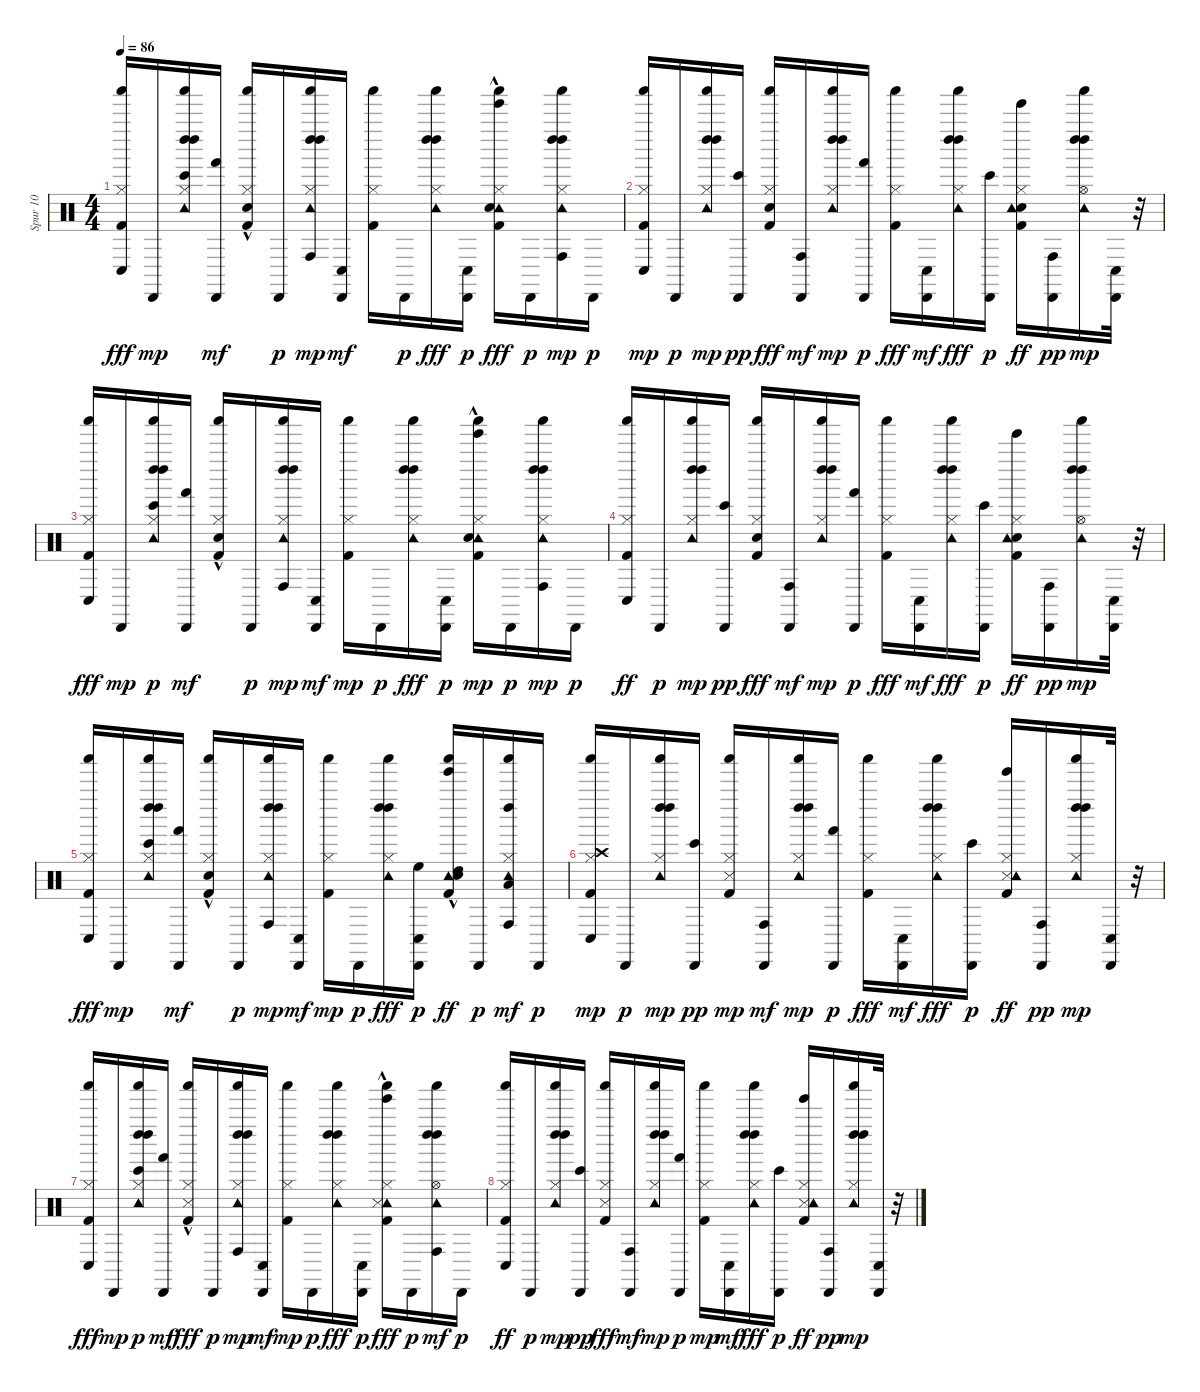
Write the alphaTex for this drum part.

\track ("Spur 10" "Spur 10") {instrument percussion}
\staff {score}
\articulation defaults
\ts (4 4)
\tempo 86
\clef neutral
\ks c
("Hi-Hat (closed)" "Kick (hit) 2" "Shaker (hit)" "Conga low (hit)").16{dy fff} "Cabasa (hit)".16{dy mp} ("Shaker (hit)" "Bongo High (hit)" "Hi-Hat (closed)" "Tambourine (hit)" "Left Maraca (hit)" "Left Maraca (hit)").16 ("Cabasa (hit)" "Hand (hit)").16{dy mf} ("Snare (hit) 2"{hac} "Shaker (hit)" "Kick (hit) 2" "Hi-Hat (closed)").16 "Cabasa (hit)".16{dy p} ("Conga high (hit)" "Shaker (hit)" "Hi-Hat (closed)" "Tambourine (hit)" "Left Maraca (hit)" "Left Maraca (hit)").16{dy mp} ("Cabasa (hit)" "Conga low (hit)").16{dy mf} ("Shaker (hit)" "Kick (hit) 2" "Hi-Hat (closed)").16 "Cabasa (hit)".16{dy p} ("Shaker (hit)" "Hi-Hat (closed)" "Tambourine (hit)" "Left Maraca (hit)" "Left Maraca (hit)").16{dy fff} ("Cabasa (hit)" "Conga low (hit)").16{dy p} ("Hi-Hat (closed)" "Tinkle Bell (hit)"{hac} "Tambourine (hit)"{hac} "Shaker (hit)" "Kick (hit) 2" "Snare (hit) 2"{hac}).16{dy fff} "Cabasa (hit)".16{dy p} ("Shaker (hit)" "Conga high (hit)" "Hi-Hat (closed)" "Tambourine (hit)" "Left Maraca (hit)" "Left Maraca (hit)").16{dy mp} "Cabasa (hit)".16{dy p} |
("Shaker (hit)" "Kick (hit) 2" "Conga low (hit)" "Hi-Hat (closed)").16{dy mp} "Cabasa (hit)".16{dy p} ("Hi-Hat (closed)" "Shaker (hit)" "Left Maraca (hit)" "Tambourine (hit)" "Left Maraca (hit)").16{dy mp} ("Bongo High (hit)" "Cabasa (hit)").16{dy pp} ("Hi-Hat (closed)" "Shaker (hit)" "Kick (hit) 2" "Snare (hit) 2").16{dy fff} ("Cabasa (hit)" "Conga high (hit)").16{dy mf} ("Shaker (hit)" "Hi-Hat (closed)" "Left Maraca (hit)" "Tambourine (hit)" "Left Maraca (hit)").16{dy mp} ("Hand (hit)" "Cabasa (hit)").16{dy p} ("Hi-Hat (closed)" "Shaker (hit)" "Kick (hit) 2").16{dy fff} ("Cabasa (hit)" "Conga low (hit)").16{dy mf} ("Shaker (hit)" "Hi-Hat (closed)" "Left Maraca (hit)" "Tambourine (hit)" "Left Maraca (hit)").16{dy fff} ("Bongo High (hit)" "Cabasa (hit)").16{dy p} ("Kick (hit) 2" "Snare (hit) 2" "Tambourine (hit)" "Tinkle Bell (hit)" "Hi-Hat (closed)").16{dy ff} ("Conga high (hit)" "Cabasa (hit)").16{dy pp} ("Hi-Hat (open)" "Shaker (hit)" "Left Maraca (hit)" "Tambourine (hit)" "Left Maraca (hit)").16{dy mp} ("Conga low (hit)" "Cabasa (hit)").32 r.32 |
("Hi-Hat (closed)" "Kick (hit) 2" "Shaker (hit)" "Conga low (hit)").16{dy fff} "Cabasa (hit)".16{dy mp} ("Hi-Hat (closed)" "Shaker (hit)" "Bongo High (hit)" "Left Maraca (hit)" "Tambourine (hit)" "Left Maraca (hit)").16{dy p} ("Cabasa (hit)" "Hand (hit)").16{dy mf} ("Snare (hit) 2"{hac} "Shaker (hit)" "Kick (hit) 2" "Hi-Hat (closed)").16 "Cabasa (hit)".16{dy p} ("Conga high (hit)" "Shaker (hit)" "Hi-Hat (closed)" "Left Maraca (hit)" "Tambourine (hit)" "Left Maraca (hit)").16{dy mp} ("Cabasa (hit)" "Conga low (hit)").16{dy mf} ("Shaker (hit)" "Kick (hit) 2" "Hi-Hat (closed)").16{dy mp} "Cabasa (hit)".16{dy p} ("Shaker (hit)" "Hi-Hat (closed)" "Left Maraca (hit)" "Tambourine (hit)" "Left Maraca (hit)").16{dy fff} ("Cabasa (hit)" "Conga low (hit)").16{dy p} ("Tinkle Bell (hit)"{hac} "Tambourine (hit)"{hac} "Shaker (hit)" "Kick (hit) 2" "Snare (hit) 2"{hac} "Hi-Hat (closed)").16{dy mp} "Cabasa (hit)".16{dy p} ("Shaker (hit)" "Conga high (hit)" "Hi-Hat (closed)" "Left Maraca (hit)" "Tambourine (hit)" "Left Maraca (hit)").16{dy mp} "Cabasa (hit)".16{dy p} |
("Hi-Hat (closed)" "Shaker (hit)" "Kick (hit) 2" "Conga low (hit)").16{dy ff} "Cabasa (hit)".16{dy p} ("Hi-Hat (closed)" "Shaker (hit)" "Left Maraca (hit)" "Tambourine (hit)" "Left Maraca (hit)").16{dy mp} ("Bongo High (hit)" "Cabasa (hit)").16{dy pp} ("Hi-Hat (closed)" "Shaker (hit)" "Kick (hit) 2" "Snare (hit) 2").16{dy fff} ("Cabasa (hit)" "Conga high (hit)").16{dy mf} ("Shaker (hit)" "Hi-Hat (closed)" "Left Maraca (hit)" "Tambourine (hit)" "Left Maraca (hit)").16{dy mp} ("Hand (hit)" "Cabasa (hit)").16{dy p} ("Hi-Hat (closed)" "Shaker (hit)" "Kick (hit) 2").16{dy fff} ("Cabasa (hit)" "Conga low (hit)").16{dy mf} ("Shaker (hit)" "Hi-Hat (closed)" "Left Maraca (hit)" "Tambourine (hit)" "Left Maraca (hit)").16{dy fff} ("Bongo High (hit)" "Cabasa (hit)").16{dy p} ("Kick (hit) 2" "Snare (hit) 2" "Tambourine (hit)" "Tinkle Bell (hit)" "Hi-Hat (closed)").16{dy ff} ("Conga high (hit)" "Cabasa (hit)").16{dy pp} ("Hi-Hat (open)" "Shaker (hit)" "Left Maraca (hit)" "Tambourine (hit)" "Left Maraca (hit)").16{dy mp} ("Conga low (hit)" "Cabasa (hit)").32 r.32 |
("Hi-Hat (closed)" "Kick (hit) 2" "Shaker (hit)" "Conga low (hit)").16{dy fff} "Cabasa (hit)".16{dy mp} ("Shaker (hit)" "Bongo High (hit)" "Hi-Hat (closed)" "Tambourine (hit)" "Left Maraca (hit)" "Left Maraca (hit)").16 ("Cabasa (hit)" "Hand (hit)").16{dy mf} ("Snare (hit) 2"{hac} "Shaker (hit)" "Kick (hit) 2" "Hi-Hat (closed)").16 "Cabasa (hit)".16{dy p} ("Conga high (hit)" "Shaker (hit)" "Hi-Hat (closed)" "Tambourine (hit)" "Left Maraca (hit)" "Left Maraca (hit)").16{dy mp} ("Cabasa (hit)" "Conga low (hit)").16{dy mf} ("Shaker (hit)" "Kick (hit) 2" "Hi-Hat (closed)").16{dy mp} "Cabasa (hit)".16{dy p} ("Shaker (hit)" "Hi-Hat (closed)" "Tambourine (hit)" "Left Maraca (hit)" "Left Maraca (hit)").16{dy fff} ("High Floor Tom (hit)" "Cabasa (hit)" "Conga low (hit)").16{dy p} ("High Tom (hit)" "Tambourine (hit)"{hac} "Shaker (hit)" "Kick (hit) 2" "Snare (hit) 2"{hac} "Tinkle Bell (hit)").16{dy ff} "Cabasa (hit)".16{dy p} ("Shaker (hit)" "Conga high (hit)" "Low Tom (hit)" "Hi-Hat (closed)" "Tambourine (hit)" "Left Maraca (hit)").16{dy mf} "Cabasa (hit)".16{dy p} |
("Shaker (hit)" "Kick (hit) 2" "Conga low (hit)" "Crash high (hit)" "Hi-Hat (closed)").16{dy mp} "Cabasa (hit)".16{dy p} ("Hi-Hat (closed)" "Shaker (hit)" "Left Maraca (hit)" "Tambourine (hit)" "Left Maraca (hit)").16{dy mp} ("Bongo High (hit)" "Cabasa (hit)").16{dy pp} ("Shaker (hit)" "Kick (hit) 2" "Snare (side stick) 3" "Hi-Hat (closed)").16{dy mp} ("Cabasa (hit)" "Conga high (hit)").16{dy mf} ("Shaker (hit)" "Hi-Hat (closed)" "Left Maraca (hit)" "Tambourine (hit)" "Left Maraca (hit)").16{dy mp} ("Hand (hit)" "Cabasa (hit)").16{dy p} ("Hi-Hat (closed)" "Shaker (hit)" "Kick (hit) 2").16{dy fff} ("Cabasa (hit)" "Conga low (hit)").16{dy mf} ("Shaker (hit)" "Hi-Hat (closed)" "Left Maraca (hit)" "Tambourine (hit)" "Left Maraca (hit)").16{dy fff} ("Bongo High (hit)" "Cabasa (hit)").16{dy p} ("Hi-Hat (closed)" "Snare (side stick) 3" "Kick (hit) 2" "Tambourine (hit)" "Tinkle Bell (hit)").16{dy ff} ("Conga high (hit)" "Cabasa (hit)").16{dy pp} ("Shaker (hit)" "Hi-Hat (closed)" "Left Maraca (hit)" "Tambourine (hit)" "Left Maraca (hit)").16{dy mp} ("Conga low (hit)" "Cabasa (hit)").32 r.32 |
("Hi-Hat (closed)" "Kick (hit) 2" "Shaker (hit)" "Conga low (hit)").16{dy fff} "Cabasa (hit)".16{dy mp} ("Hi-Hat (closed)" "Shaker (hit)" "Bongo High (hit)" "Left Maraca (hit)" "Tambourine (hit)" "Left Maraca (hit)").16{dy p} ("Cabasa (hit)" "Hand (hit)").16{dy mf} ("Hi-Hat (closed)" "Snare (side stick) 3"{hac} "Shaker (hit)" "Kick (hit) 2").16{dy fff} "Cabasa (hit)".16{dy p} ("Conga high (hit)" "Shaker (hit)" "Hi-Hat (closed)" "Left Maraca (hit)" "Tambourine (hit)" "Left Maraca (hit)").16{dy mp} ("Cabasa (hit)" "Conga low (hit)").16{dy mf} ("Shaker (hit)" "Kick (hit) 2" "Hi-Hat (closed)").16{dy mp} "Cabasa (hit)".16{dy p} ("Shaker (hit)" "Hi-Hat (closed)" "Left Maraca (hit)" "Tambourine (hit)" "Left Maraca (hit)").16{dy fff} ("Cabasa (hit)" "Conga low (hit)").16{dy p} ("Tinkle Bell (hit)" "Tambourine (hit)"{hac} "Shaker (hit)" "Kick (hit) 2" "Snare (side stick) 3"{hac} "Hi-Hat (closed)").16{dy fff} "Cabasa (hit)".16{dy p} ("Shaker (hit)" "Conga high (hit)" "Hi-Hat (open)" "Left Maraca (hit)" "Tambourine (hit)" "Left Maraca (hit)").16{dy mf} "Cabasa (hit)".16{dy p} |
("Hi-Hat (closed)" "Shaker (hit)" "Kick (hit) 2" "Conga low (hit)").16{dy ff} "Cabasa (hit)".16{dy p} ("Shaker (hit)" "Hi-Hat (closed)" "Left Maraca (hit)" "Tambourine (hit)" "Left Maraca (hit)").16{dy mp} ("Bongo High (hit)" "Cabasa (hit)").16{dy pp} ("Hi-Hat (closed)" "Shaker (hit)" "Kick (hit) 2" "Snare (side stick) 3").16{dy fff} ("Cabasa (hit)" "Conga high (hit)").16{dy mf} ("Hi-Hat (closed)" "Shaker (hit)" "Left Maraca (hit)" "Tambourine (hit)" "Left Maraca (hit)").16{dy mp} ("Hand (hit)" "Cabasa (hit)").16{dy p} ("Shaker (hit)" "Kick (hit) 2" "Hi-Hat (closed)").16{dy mp} ("Cabasa (hit)" "Conga low (hit)").16{dy mf} ("Shaker (hit)" "Hi-Hat (closed)" "Left Maraca (hit)" "Tambourine (hit)" "Left Maraca (hit)").16{dy fff} ("Bongo High (hit)" "Cabasa (hit)").16{dy p} ("Hi-Hat (closed)" "Snare (side stick) 3" "Kick (hit) 2" "Tambourine (hit)" "Tinkle Bell (hit)").16{dy ff} ("Conga high (hit)" "Cabasa (hit)").16{dy pp} ("Shaker (hit)" "Hi-Hat (closed)" "Left Maraca (hit)" "Tambourine (hit)" "Left Maraca (hit)").16{dy mp} ("Conga low (hit)" "Cabasa (hit)").32 r.32
